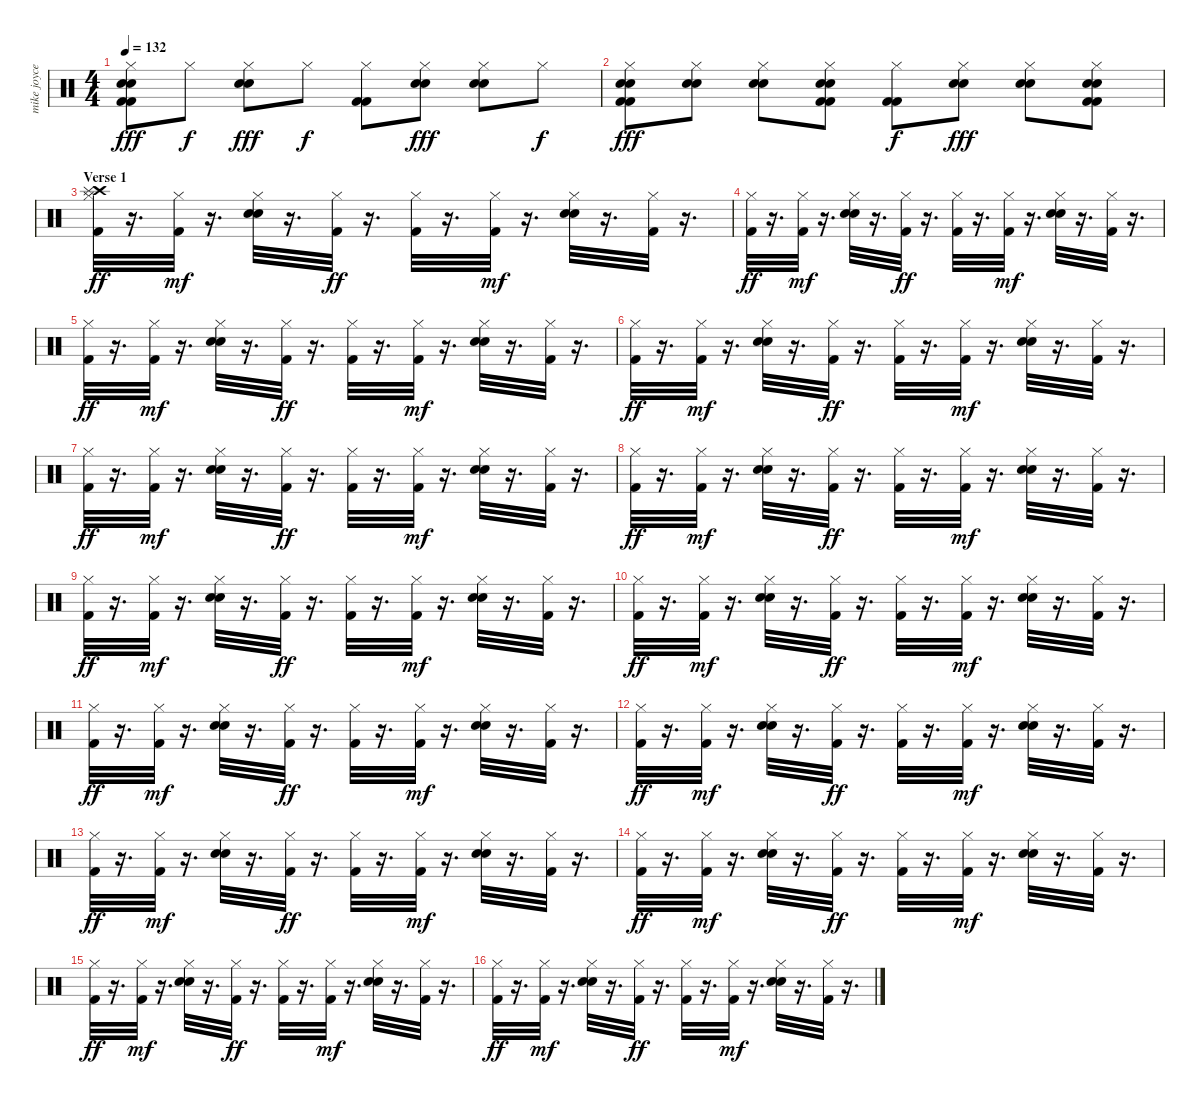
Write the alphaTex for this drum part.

\track ("mike joyce" "mike joyce") {instrument percussion}
\staff {score}
\articulation defaults
\ts (4 4)
\tempo 132
\clef neutral
\ks c
("Hi-Hat (closed)" "Electric Snare (hit)" "Snare (hit) 2" "Kick (hit) 2" "Kick (hit) 2").8{dy fff} "Hi-Hat (closed)".8{dy f} ("Hi-Hat (closed)" "Electric Snare (hit)" "Snare (hit) 2").8{dy fff} "Hi-Hat (closed)".8{dy f} ("Hi-Hat (closed)" "Kick (hit) 2" "Kick (hit) 2").8 ("Hi-Hat (closed)" "Electric Snare (hit)" "Snare (hit) 2").8{dy fff} ("Hi-Hat (closed)" "Electric Snare (hit)" "Snare (hit) 2").8 "Hi-Hat (closed)".8{dy f} |
("Hi-Hat (closed)" "Electric Snare (hit)" "Snare (hit) 2" "Kick (hit) 2" "Kick (hit) 2").8{dy fff} ("Hi-Hat (closed)" "Electric Snare (hit)" "Snare (hit) 2").8 ("Hi-Hat (closed)" "Electric Snare (hit)" "Snare (hit) 2").8 ("Hi-Hat (closed)" "Electric Snare (hit)" "Snare (hit) 2" "Kick (hit) 2" "Kick (hit) 2").8 ("Hi-Hat (closed)" "Kick (hit) 2" "Kick (hit) 2").8{dy f} ("Hi-Hat (closed)" "Electric Snare (hit)" "Snare (hit) 2").8{dy fff} ("Hi-Hat (closed)" "Electric Snare (hit)" "Snare (hit) 2").8 ("Hi-Hat (closed)" "Electric Snare (hit)" "Snare (hit) 2" "Kick (hit) 2" "Kick (hit) 2").8 |
\section ("" "Verse 1")
("Crash high (hit)" "Hi-Hat (closed)" "Kick (hit) 2" "Splash (hit)").32{dy ff} r.16{d} ("Kick (hit) 2" "Hi-Hat (closed)").32{dy mf} r.16{d} ("Snare (hit) 2" "Electric Snare (hit)" "Hi-Hat (closed)").32 r.16{d} ("Hi-Hat (closed)" "Kick (hit) 2").32{dy ff} r.16{d} ("Hi-Hat (closed)" "Kick (hit) 2").32 r.16{d} ("Kick (hit) 2" "Hi-Hat (closed)").32{dy mf} r.16{d} ("Snare (hit) 2" "Electric Snare (hit)" "Hi-Hat (closed)").32 r.16{d} ("Kick (hit) 2" "Hi-Hat (closed)").32 r.16{d} |
("Hi-Hat (closed)" "Kick (hit) 2").32{dy ff} r.16{d} ("Kick (hit) 2" "Hi-Hat (closed)").32{dy mf} r.16{d} ("Snare (hit) 2" "Electric Snare (hit)" "Hi-Hat (closed)").32 r.16{d} ("Hi-Hat (closed)" "Kick (hit) 2").32{dy ff} r.16{d} ("Hi-Hat (closed)" "Kick (hit) 2").32 r.16{d} ("Kick (hit) 2" "Hi-Hat (closed)").32{dy mf} r.16{d} ("Snare (hit) 2" "Electric Snare (hit)" "Hi-Hat (closed)").32 r.16{d} ("Kick (hit) 2" "Hi-Hat (closed)").32 r.16{d} |
("Hi-Hat (closed)" "Kick (hit) 2").32{dy ff} r.16{d} ("Kick (hit) 2" "Hi-Hat (closed)").32{dy mf} r.16{d} ("Snare (hit) 2" "Electric Snare (hit)" "Hi-Hat (closed)").32 r.16{d} ("Hi-Hat (closed)" "Kick (hit) 2").32{dy ff} r.16{d} ("Hi-Hat (closed)" "Kick (hit) 2").32 r.16{d} ("Kick (hit) 2" "Hi-Hat (closed)").32{dy mf} r.16{d} ("Snare (hit) 2" "Electric Snare (hit)" "Hi-Hat (closed)").32 r.16{d} ("Kick (hit) 2" "Hi-Hat (closed)").32 r.16{d} |
("Hi-Hat (closed)" "Kick (hit) 2").32{dy ff} r.16{d} ("Kick (hit) 2" "Hi-Hat (closed)").32{dy mf} r.16{d} ("Snare (hit) 2" "Electric Snare (hit)" "Hi-Hat (closed)").32 r.16{d} ("Hi-Hat (closed)" "Kick (hit) 2").32{dy ff} r.16{d} ("Hi-Hat (closed)" "Kick (hit) 2").32 r.16{d} ("Kick (hit) 2" "Hi-Hat (closed)").32{dy mf} r.16{d} ("Snare (hit) 2" "Electric Snare (hit)" "Hi-Hat (closed)").32 r.16{d} ("Kick (hit) 2" "Hi-Hat (closed)").32 r.16{d} |
("Hi-Hat (closed)" "Kick (hit) 2").32{dy ff} r.16{d} ("Kick (hit) 2" "Hi-Hat (closed)").32{dy mf} r.16{d} ("Snare (hit) 2" "Electric Snare (hit)" "Hi-Hat (closed)").32 r.16{d} ("Hi-Hat (closed)" "Kick (hit) 2").32{dy ff} r.16{d} ("Hi-Hat (closed)" "Kick (hit) 2").32 r.16{d} ("Kick (hit) 2" "Hi-Hat (closed)").32{dy mf} r.16{d} ("Snare (hit) 2" "Electric Snare (hit)" "Hi-Hat (closed)").32 r.16{d} ("Kick (hit) 2" "Hi-Hat (closed)").32 r.16{d} |
("Hi-Hat (closed)" "Kick (hit) 2").32{dy ff} r.16{d} ("Kick (hit) 2" "Hi-Hat (closed)").32{dy mf} r.16{d} ("Snare (hit) 2" "Electric Snare (hit)" "Hi-Hat (closed)").32 r.16{d} ("Hi-Hat (closed)" "Kick (hit) 2").32{dy ff} r.16{d} ("Hi-Hat (closed)" "Kick (hit) 2").32 r.16{d} ("Kick (hit) 2" "Hi-Hat (closed)").32{dy mf} r.16{d} ("Snare (hit) 2" "Electric Snare (hit)" "Hi-Hat (closed)").32 r.16{d} ("Kick (hit) 2" "Hi-Hat (closed)").32 r.16{d} |
("Hi-Hat (closed)" "Kick (hit) 2").32{dy ff} r.16{d} ("Kick (hit) 2" "Hi-Hat (closed)").32{dy mf} r.16{d} ("Snare (hit) 2" "Electric Snare (hit)" "Hi-Hat (closed)").32 r.16{d} ("Hi-Hat (closed)" "Kick (hit) 2").32{dy ff} r.16{d} ("Hi-Hat (closed)" "Kick (hit) 2").32 r.16{d} ("Kick (hit) 2" "Hi-Hat (closed)").32{dy mf} r.16{d} ("Snare (hit) 2" "Electric Snare (hit)" "Hi-Hat (closed)").32 r.16{d} ("Kick (hit) 2" "Hi-Hat (closed)").32 r.16{d} |
("Hi-Hat (closed)" "Kick (hit) 2").32{dy ff} r.16{d} ("Kick (hit) 2" "Hi-Hat (closed)").32{dy mf} r.16{d} ("Snare (hit) 2" "Electric Snare (hit)" "Hi-Hat (closed)").32 r.16{d} ("Hi-Hat (closed)" "Kick (hit) 2").32{dy ff} r.16{d} ("Hi-Hat (closed)" "Kick (hit) 2").32 r.16{d} ("Kick (hit) 2" "Hi-Hat (closed)").32{dy mf} r.16{d} ("Snare (hit) 2" "Electric Snare (hit)" "Hi-Hat (closed)").32 r.16{d} ("Kick (hit) 2" "Hi-Hat (closed)").32 r.16{d} |
("Hi-Hat (closed)" "Kick (hit) 2").32{dy ff} r.16{d} ("Kick (hit) 2" "Hi-Hat (closed)").32{dy mf} r.16{d} ("Snare (hit) 2" "Electric Snare (hit)" "Hi-Hat (closed)").32 r.16{d} ("Hi-Hat (closed)" "Kick (hit) 2").32{dy ff} r.16{d} ("Hi-Hat (closed)" "Kick (hit) 2").32 r.16{d} ("Kick (hit) 2" "Hi-Hat (closed)").32{dy mf} r.16{d} ("Snare (hit) 2" "Electric Snare (hit)" "Hi-Hat (closed)").32 r.16{d} ("Kick (hit) 2" "Hi-Hat (closed)").32 r.16{d} |
("Hi-Hat (closed)" "Kick (hit) 2").32{dy ff} r.16{d} ("Kick (hit) 2" "Hi-Hat (closed)").32{dy mf} r.16{d} ("Snare (hit) 2" "Electric Snare (hit)" "Hi-Hat (closed)").32 r.16{d} ("Hi-Hat (closed)" "Kick (hit) 2").32{dy ff} r.16{d} ("Hi-Hat (closed)" "Kick (hit) 2").32 r.16{d} ("Kick (hit) 2" "Hi-Hat (closed)").32{dy mf} r.16{d} ("Snare (hit) 2" "Electric Snare (hit)" "Hi-Hat (closed)").32 r.16{d} ("Kick (hit) 2" "Hi-Hat (closed)").32 r.16{d} |
("Hi-Hat (closed)" "Kick (hit) 2").32{dy ff} r.16{d} ("Kick (hit) 2" "Hi-Hat (closed)").32{dy mf} r.16{d} ("Snare (hit) 2" "Electric Snare (hit)" "Hi-Hat (closed)").32 r.16{d} ("Hi-Hat (closed)" "Kick (hit) 2").32{dy ff} r.16{d} ("Hi-Hat (closed)" "Kick (hit) 2").32 r.16{d} ("Kick (hit) 2" "Hi-Hat (closed)").32{dy mf} r.16{d} ("Snare (hit) 2" "Electric Snare (hit)" "Hi-Hat (closed)").32 r.16{d} ("Kick (hit) 2" "Hi-Hat (closed)").32 r.16{d} |
("Hi-Hat (closed)" "Kick (hit) 2").32{dy ff} r.16{d} ("Kick (hit) 2" "Hi-Hat (closed)").32{dy mf} r.16{d} ("Snare (hit) 2" "Electric Snare (hit)" "Hi-Hat (closed)").32 r.16{d} ("Hi-Hat (closed)" "Kick (hit) 2").32{dy ff} r.16{d} ("Hi-Hat (closed)" "Kick (hit) 2").32 r.16{d} ("Kick (hit) 2" "Hi-Hat (closed)").32{dy mf} r.16{d} ("Snare (hit) 2" "Electric Snare (hit)" "Hi-Hat (closed)").32 r.16{d} ("Kick (hit) 2" "Hi-Hat (closed)").32 r.16{d} |
("Hi-Hat (closed)" "Kick (hit) 2").32{dy ff} r.16{d} ("Kick (hit) 2" "Hi-Hat (closed)").32{dy mf} r.16{d} ("Snare (hit) 2" "Electric Snare (hit)" "Hi-Hat (closed)").32 r.16{d} ("Hi-Hat (closed)" "Kick (hit) 2").32{dy ff} r.16{d} ("Hi-Hat (closed)" "Kick (hit) 2").32 r.16{d} ("Kick (hit) 2" "Hi-Hat (closed)").32{dy mf} r.16{d} ("Snare (hit) 2" "Electric Snare (hit)" "Hi-Hat (closed)").32 r.16{d} ("Kick (hit) 2" "Hi-Hat (closed)").32 r.16{d} |
("Hi-Hat (closed)" "Kick (hit) 2").32{dy ff} r.16{d} ("Kick (hit) 2" "Hi-Hat (closed)").32{dy mf} r.16{d} ("Snare (hit) 2" "Electric Snare (hit)" "Hi-Hat (closed)").32 r.16{d} ("Hi-Hat (closed)" "Kick (hit) 2").32{dy ff} r.16{d} ("Hi-Hat (closed)" "Kick (hit) 2").32 r.16{d} ("Kick (hit) 2" "Hi-Hat (closed)").32{dy mf} r.16{d} ("Snare (hit) 2" "Electric Snare (hit)" "Hi-Hat (closed)").32 r.16{d} ("Kick (hit) 2" "Hi-Hat (closed)").32 r.16{d}
